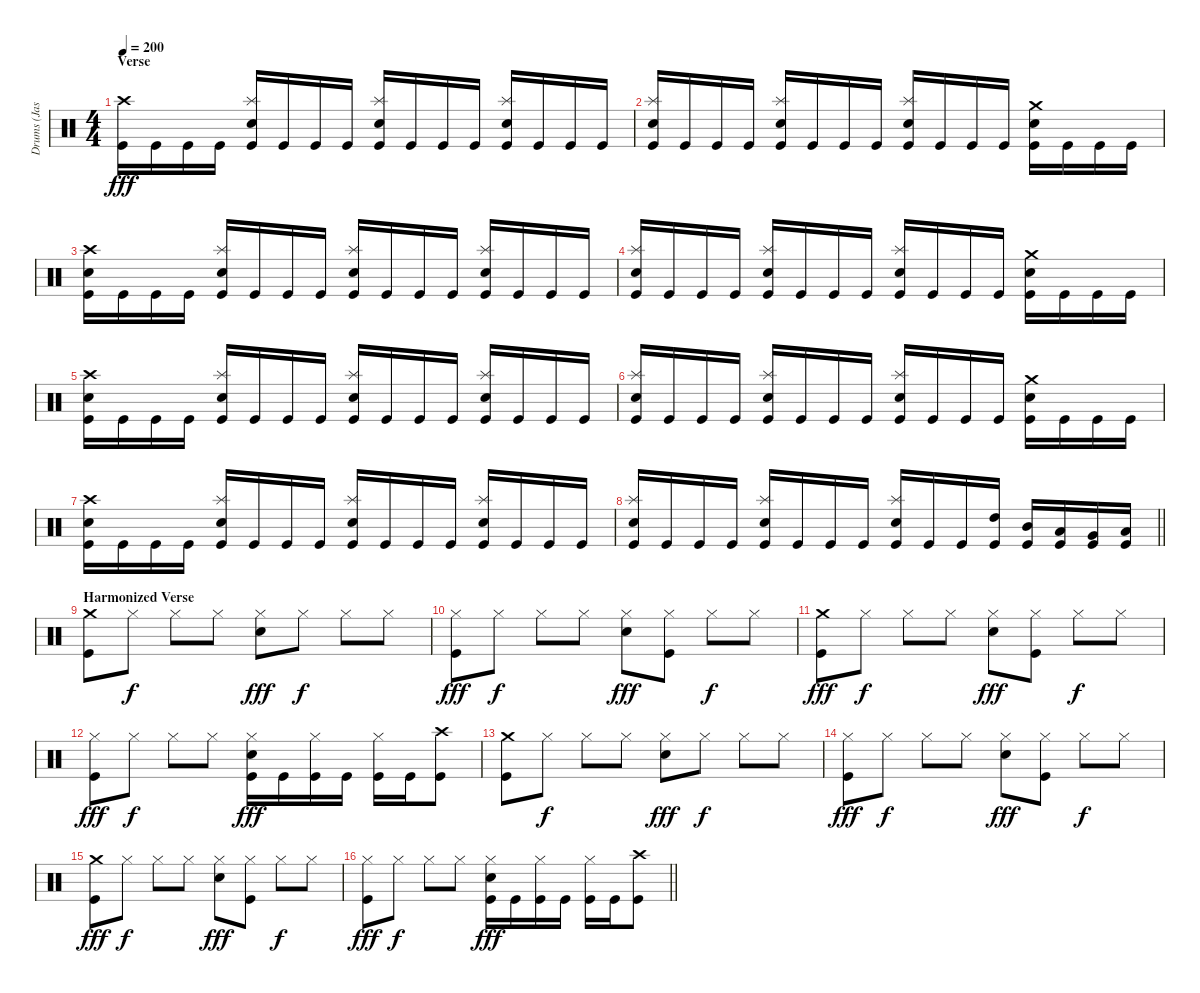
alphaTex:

\track ("Drums (Jason Costa)" "Drums (Jas") {instrument percussion}
\staff {score}
\articulation defaults
\ts (4 4)
\section ("" "Verse")
\tempo 200
\clef neutral
\ks c
("Crash high (hit)" "Kick (hit)").16{dy fff} "Kick (hit)".16 "Kick (hit)".16 "Kick (hit)".16 ("Splash (hit)" "Electric Snare (hit)" "Kick (hit)").16 "Kick (hit)".16 "Kick (hit)".16 "Kick (hit)".16 ("Splash (hit)" "Electric Snare (hit)" "Kick (hit)").16 "Kick (hit)".16 "Kick (hit)".16 "Kick (hit)".16 ("Splash (hit)" "Electric Snare (hit)" "Kick (hit)").16 "Kick (hit)".16 "Kick (hit)".16 "Kick (hit)".16 |
("Splash (hit)" "Electric Snare (hit)" "Kick (hit)").16 "Kick (hit)".16 "Kick (hit)".16 "Kick (hit)".16 ("Splash (hit)" "Electric Snare (hit)" "Kick (hit)").16 "Kick (hit)".16 "Kick (hit)".16 "Kick (hit)".16 ("Splash (hit)" "Electric Snare (hit)" "Kick (hit)").16 "Kick (hit)".16 "Kick (hit)".16 "Kick (hit)".16 ("Crash medium (hit)" "Electric Snare (hit)" "Kick (hit)").16 "Kick (hit)".16 "Kick (hit)".16 "Kick (hit)".16 |
("Crash high (hit)" "Electric Snare (hit)" "Kick (hit)").16 "Kick (hit)".16 "Kick (hit)".16 "Kick (hit)".16 ("Splash (hit)" "Electric Snare (hit)" "Kick (hit)").16 "Kick (hit)".16 "Kick (hit)".16 "Kick (hit)".16 ("Splash (hit)" "Electric Snare (hit)" "Kick (hit)").16 "Kick (hit)".16 "Kick (hit)".16 "Kick (hit)".16 ("Splash (hit)" "Electric Snare (hit)" "Kick (hit)").16 "Kick (hit)".16 "Kick (hit)".16 "Kick (hit)".16 |
("Splash (hit)" "Electric Snare (hit)" "Kick (hit)").16 "Kick (hit)".16 "Kick (hit)".16 "Kick (hit)".16 ("Splash (hit)" "Electric Snare (hit)" "Kick (hit)").16 "Kick (hit)".16 "Kick (hit)".16 "Kick (hit)".16 ("Splash (hit)" "Electric Snare (hit)" "Kick (hit)").16 "Kick (hit)".16 "Kick (hit)".16 "Kick (hit)".16 ("Crash medium (hit)" "Electric Snare (hit)" "Kick (hit)").16 "Kick (hit)".16 "Kick (hit)".16 "Kick (hit)".16 |
("Crash high (hit)" "Electric Snare (hit)" "Kick (hit)").16 "Kick (hit)".16 "Kick (hit)".16 "Kick (hit)".16 ("Splash (hit)" "Electric Snare (hit)" "Kick (hit)").16 "Kick (hit)".16 "Kick (hit)".16 "Kick (hit)".16 ("Splash (hit)" "Electric Snare (hit)" "Kick (hit)").16 "Kick (hit)".16 "Kick (hit)".16 "Kick (hit)".16 ("Splash (hit)" "Electric Snare (hit)" "Kick (hit)").16 "Kick (hit)".16 "Kick (hit)".16 "Kick (hit)".16 |
("Splash (hit)" "Electric Snare (hit)" "Kick (hit)").16 "Kick (hit)".16 "Kick (hit)".16 "Kick (hit)".16 ("Splash (hit)" "Electric Snare (hit)" "Kick (hit)").16 "Kick (hit)".16 "Kick (hit)".16 "Kick (hit)".16 ("Splash (hit)" "Electric Snare (hit)" "Kick (hit)").16 "Kick (hit)".16 "Kick (hit)".16 "Kick (hit)".16 ("Crash medium (hit)" "Electric Snare (hit)" "Kick (hit)").16 "Kick (hit)".16 "Kick (hit)".16 "Kick (hit)".16 |
("Crash high (hit)" "Electric Snare (hit)" "Kick (hit)").16 "Kick (hit)".16 "Kick (hit)".16 "Kick (hit)".16 ("Splash (hit)" "Electric Snare (hit)" "Kick (hit)").16 "Kick (hit)".16 "Kick (hit)".16 "Kick (hit)".16 ("Splash (hit)" "Electric Snare (hit)" "Kick (hit)").16 "Kick (hit)".16 "Kick (hit)".16 "Kick (hit)".16 ("Splash (hit)" "Electric Snare (hit)" "Kick (hit)").16 "Kick (hit)".16 "Kick (hit)".16 "Kick (hit)".16 |
\barLineRight lightlight
("Splash (hit)" "Electric Snare (hit)" "Kick (hit)").16 "Kick (hit)".16 "Kick (hit)".16 "Kick (hit)".16 ("Splash (hit)" "Electric Snare (hit)" "Kick (hit)").16 "Kick (hit)".16 "Kick (hit)".16 "Kick (hit)".16 ("Splash (hit)" "Electric Snare (hit)" "Kick (hit)").16 "Kick (hit)".16 "Kick (hit)".16 ("High Tom (hit)" "Kick (hit)").16 ("Mid Tom (hit)" "Kick (hit)").16 ("Low Tom (hit)" "Kick (hit)").16 ("Very Low Tom (hit)" "Kick (hit)").16 ("Low Floor Tom (hit)" "Kick (hit)").16 |
\section ("" "Harmonized Verse")
("Crash medium (hit)" "Kick (hit)").8 "Hi-Hat (closed)".8{dy f} "Hi-Hat (closed)".8 "Hi-Hat (closed)".8 ("Hi-Hat (closed)" "Electric Snare (hit)").8{dy fff} "Hi-Hat (closed)".8{dy f} "Hi-Hat (closed)".8 "Hi-Hat (closed)".8 |
("Hi-Hat (closed)" "Kick (hit)").8{dy fff} "Hi-Hat (closed)".8{dy f} "Hi-Hat (closed)".8 "Hi-Hat (closed)".8 ("Hi-Hat (closed)" "Electric Snare (hit)").8{dy fff} ("Hi-Hat (closed)" "Kick (hit)").8 "Hi-Hat (closed)".8{dy f} "Hi-Hat (closed)".8 |
("Crash medium (hit)" "Kick (hit)").8{dy fff} "Hi-Hat (closed)".8{dy f} "Hi-Hat (closed)".8 "Hi-Hat (closed)".8 ("Hi-Hat (closed)" "Electric Snare (hit)").8{dy fff} ("Hi-Hat (closed)" "Kick (hit)").8 "Hi-Hat (closed)".8{dy f} "Hi-Hat (closed)".8 |
("Hi-Hat (closed)" "Kick (hit)").8{dy fff} "Hi-Hat (closed)".8{dy f} "Hi-Hat (closed)".8 "Hi-Hat (closed)".8 ("Hi-Hat (closed)" "Electric Snare (hit)" "Kick (hit)").16{dy fff} "Kick (hit)".16 ("Hi-Hat (closed)" "Kick (hit)").16 "Kick (hit)".16 ("Hi-Hat (closed)" "Kick (hit)").16 "Kick (hit)".16 ("Crash high (hit)" "Kick (hit)").8 |
("Crash medium (hit)" "Kick (hit)").8 "Hi-Hat (closed)".8{dy f} "Hi-Hat (closed)".8 "Hi-Hat (closed)".8 ("Hi-Hat (closed)" "Electric Snare (hit)").8{dy fff} "Hi-Hat (closed)".8{dy f} "Hi-Hat (closed)".8 "Hi-Hat (closed)".8 |
("Hi-Hat (closed)" "Kick (hit)").8{dy fff} "Hi-Hat (closed)".8{dy f} "Hi-Hat (closed)".8 "Hi-Hat (closed)".8 ("Hi-Hat (closed)" "Electric Snare (hit)").8{dy fff} ("Hi-Hat (closed)" "Kick (hit)").8 "Hi-Hat (closed)".8{dy f} "Hi-Hat (closed)".8 |
("Crash medium (hit)" "Kick (hit)").8{dy fff} "Hi-Hat (closed)".8{dy f} "Hi-Hat (closed)".8 "Hi-Hat (closed)".8 ("Hi-Hat (closed)" "Electric Snare (hit)").8{dy fff} ("Hi-Hat (closed)" "Kick (hit)").8 "Hi-Hat (closed)".8{dy f} "Hi-Hat (closed)".8 |
\barLineRight lightlight
("Hi-Hat (closed)" "Kick (hit)").8{dy fff} "Hi-Hat (closed)".8{dy f} "Hi-Hat (closed)".8 "Hi-Hat (closed)".8 ("Hi-Hat (closed)" "Electric Snare (hit)" "Kick (hit)").16{dy fff} "Kick (hit)".16 ("Hi-Hat (closed)" "Kick (hit)").16 "Kick (hit)".16 ("Hi-Hat (closed)" "Kick (hit)").16 "Kick (hit)".16 ("Crash high (hit)" "Kick (hit)").8
